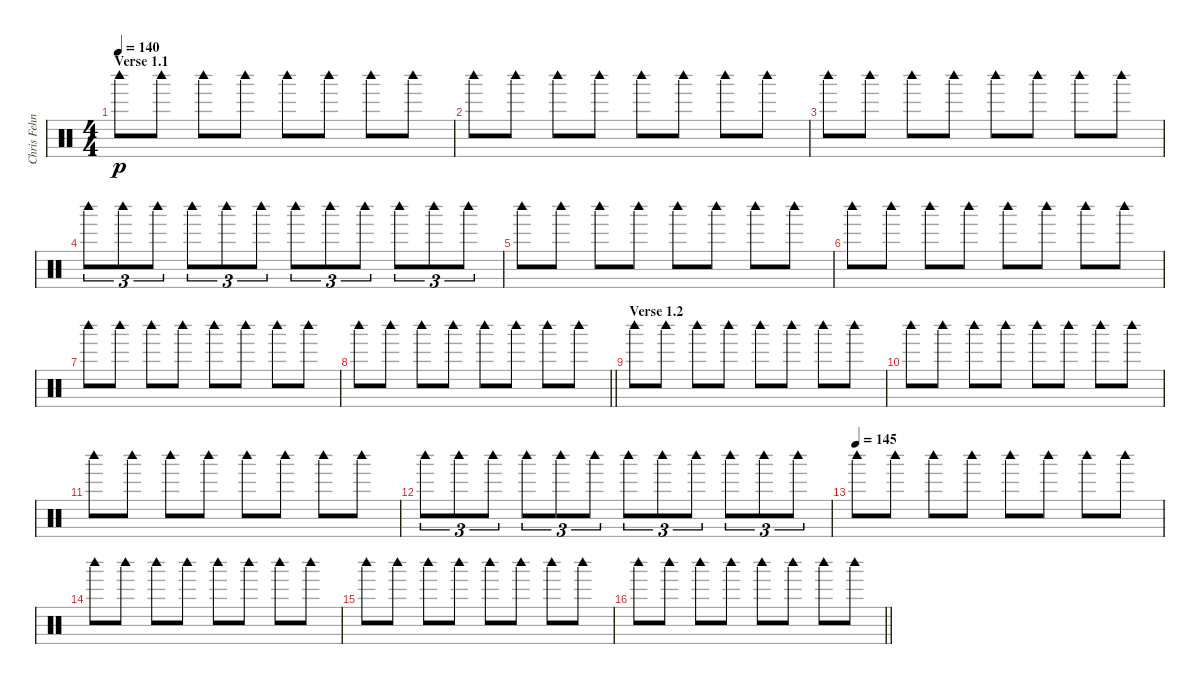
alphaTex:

\track ("Chris Fehn" "Chris Fehn") {instrument percussion}
\staff {score}
\articulation defaults
\ts (4 4)
\section ("" "Verse 1.1")
\tempo 140
\clef neutral
\ks c "Woodblock high (hit)".8{dy p} "Woodblock high (hit)".8 "Woodblock high (hit)".8 "Woodblock high (hit)".8 "Woodblock high (hit)".8 "Woodblock high (hit)".8 "Woodblock high (hit)".8 "Woodblock high (hit)".8
|
"Woodblock high (hit)".8 "Woodblock high (hit)".8 "Woodblock high (hit)".8 "Woodblock high (hit)".8 "Woodblock high (hit)".8 "Woodblock high (hit)".8 "Woodblock high (hit)".8 "Woodblock high (hit)".8 |
"Woodblock high (hit)".8 "Woodblock high (hit)".8 "Woodblock high (hit)".8 "Woodblock high (hit)".8 "Woodblock high (hit)".8 "Woodblock high (hit)".8 "Woodblock high (hit)".8 "Woodblock high (hit)".8 |
"Woodblock high (hit)".8{tu (3 2)} "Woodblock high (hit)".8{tu (3 2)} "Woodblock high (hit)".8{tu (3 2)} "Woodblock high (hit)".8{tu (3 2)} "Woodblock high (hit)".8{tu (3 2)} "Woodblock high (hit)".8{tu (3 2)} "Woodblock high (hit)".8{tu (3 2)} "Woodblock high (hit)".8{tu (3 2)} "Woodblock high (hit)".8{tu (3 2)} "Woodblock high (hit)".8{tu (3 2)} "Woodblock high (hit)".8{tu (3 2)} "Woodblock high (hit)".8{tu (3 2)} |
"Woodblock high (hit)".8 "Woodblock high (hit)".8 "Woodblock high (hit)".8 "Woodblock high (hit)".8 "Woodblock high (hit)".8 "Woodblock high (hit)".8 "Woodblock high (hit)".8 "Woodblock high (hit)".8 |
"Woodblock high (hit)".8 "Woodblock high (hit)".8 "Woodblock high (hit)".8 "Woodblock high (hit)".8 "Woodblock high (hit)".8 "Woodblock high (hit)".8 "Woodblock high (hit)".8 "Woodblock high (hit)".8 |
"Woodblock high (hit)".8 "Woodblock high (hit)".8 "Woodblock high (hit)".8 "Woodblock high (hit)".8 "Woodblock high (hit)".8 "Woodblock high (hit)".8 "Woodblock high (hit)".8 "Woodblock high (hit)".8 |
\barLineRight lightlight "Woodblock high (hit)".8 "Woodblock high (hit)".8 "Woodblock high (hit)".8 "Woodblock high (hit)".8 "Woodblock high (hit)".8 "Woodblock high (hit)".8 "Woodblock high (hit)".8 "Woodblock high (hit)".8
|
\section ("" "Verse 1.2")
"Woodblock high (hit)".8 "Woodblock high (hit)".8 "Woodblock high (hit)".8 "Woodblock high (hit)".8 "Woodblock high (hit)".8 "Woodblock high (hit)".8 "Woodblock high (hit)".8 "Woodblock high (hit)".8 |
"Woodblock high (hit)".8 "Woodblock high (hit)".8 "Woodblock high (hit)".8 "Woodblock high (hit)".8 "Woodblock high (hit)".8 "Woodblock high (hit)".8 "Woodblock high (hit)".8 "Woodblock high (hit)".8 |
"Woodblock high (hit)".8 "Woodblock high (hit)".8 "Woodblock high (hit)".8 "Woodblock high (hit)".8 "Woodblock high (hit)".8 "Woodblock high (hit)".8 "Woodblock high (hit)".8 "Woodblock high (hit)".8 |
"Woodblock high (hit)".8{tu (3 2)} "Woodblock high (hit)".8{tu (3 2)} "Woodblock high (hit)".8{tu (3 2)} "Woodblock high (hit)".8{tu (3 2)} "Woodblock high (hit)".8{tu (3 2)} "Woodblock high (hit)".8{tu (3 2)} "Woodblock high (hit)".8{tu (3 2)} "Woodblock high (hit)".8{tu (3 2)} "Woodblock high (hit)".8{tu (3 2)} "Woodblock high (hit)".8{tu (3 2)} "Woodblock high (hit)".8{tu (3 2)} "Woodblock high (hit)".8{tu (3 2)} |
\tempo (145)
"Woodblock high (hit)".8 "Woodblock high (hit)".8 "Woodblock high (hit)".8 "Woodblock high (hit)".8 "Woodblock high (hit)".8 "Woodblock high (hit)".8 "Woodblock high (hit)".8 "Woodblock high (hit)".8 |
"Woodblock high (hit)".8 "Woodblock high (hit)".8 "Woodblock high (hit)".8 "Woodblock high (hit)".8 "Woodblock high (hit)".8 "Woodblock high (hit)".8 "Woodblock high (hit)".8 "Woodblock high (hit)".8 |
"Woodblock high (hit)".8 "Woodblock high (hit)".8 "Woodblock high (hit)".8 "Woodblock high (hit)".8 "Woodblock high (hit)".8 "Woodblock high (hit)".8 "Woodblock high (hit)".8 "Woodblock high (hit)".8 |
\barLineRight lightlight "Woodblock high (hit)".8 "Woodblock high (hit)".8 "Woodblock high (hit)".8 "Woodblock high (hit)".8 "Woodblock high (hit)".8 "Woodblock high (hit)".8 "Woodblock high (hit)".8 "Woodblock high (hit)".8
